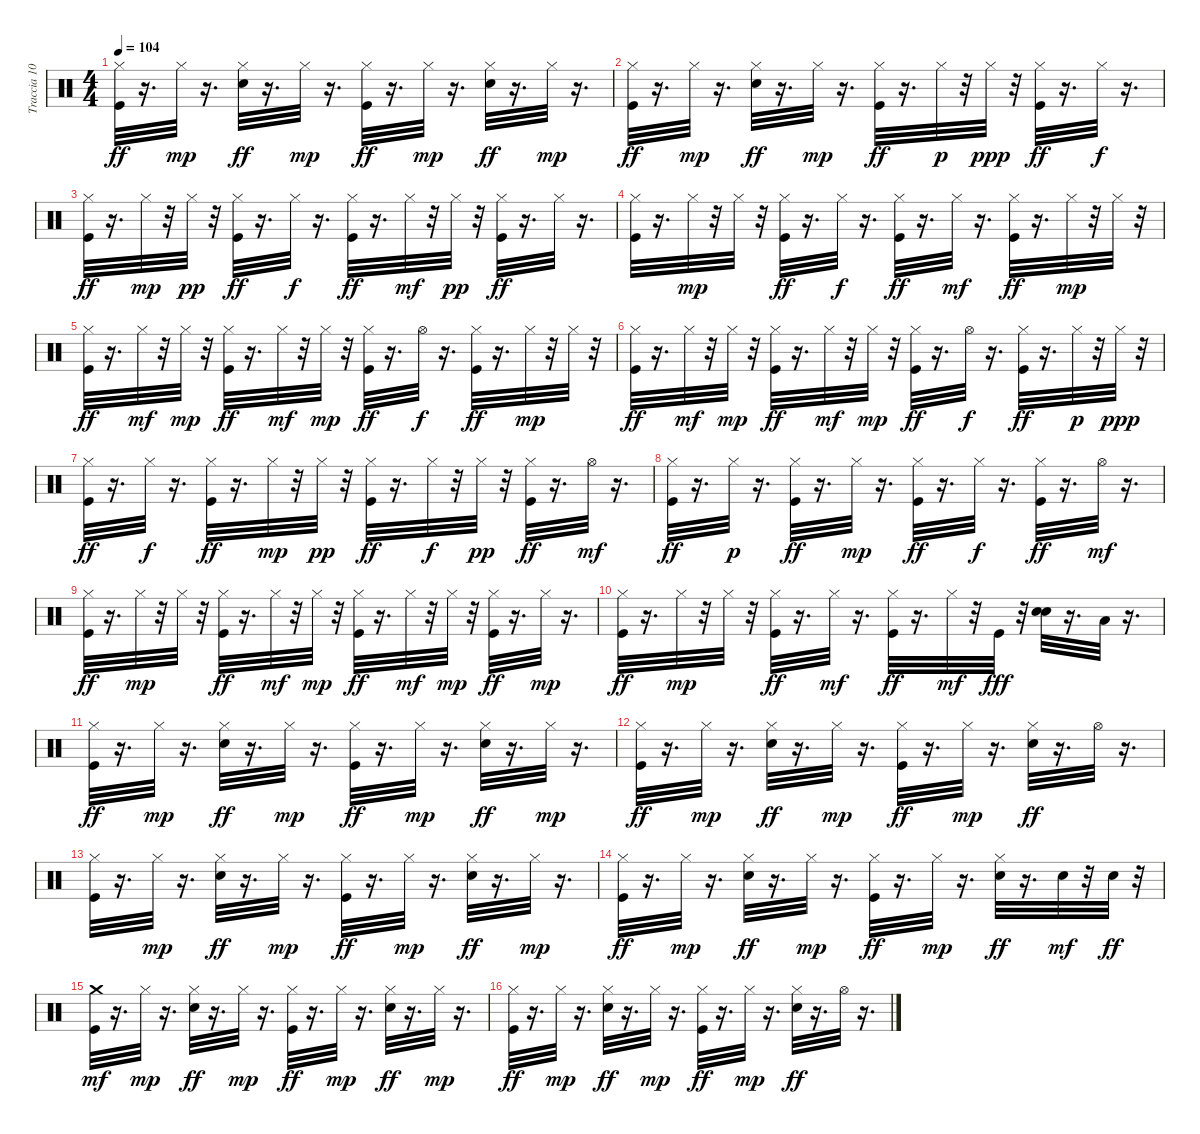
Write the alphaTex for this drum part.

\track ("Traccia 10" "Traccia 10") {instrument percussion}
\staff {score}
\articulation defaults
\ts (4 4)
\tempo 104
\clef neutral
\ks c
("Kick (hit)" "Hi-Hat (closed)").32{dy ff} r.16{d} "Hi-Hat (closed)".32{dy mp} r.16{d} ("Snare (hit) 2" "Hi-Hat (closed)").32{dy ff} r.16{d} "Hi-Hat (closed)".32{dy mp} r.16{d} ("Kick (hit)" "Hi-Hat (closed)").32{dy ff} r.16{d} "Hi-Hat (closed)".32{dy mp} r.16{d} ("Snare (hit) 2" "Hi-Hat (closed)").32{dy ff} r.16{d} "Hi-Hat (closed)".32{dy mp} r.16{d} |
("Kick (hit)" "Hi-Hat (closed)").32{dy ff} r.16{d} "Hi-Hat (closed)".32{dy mp} r.16{d} ("Snare (hit) 2" "Hi-Hat (closed)").32{dy ff} r.16{d} "Hi-Hat (closed)".32{dy mp} r.16{d} ("Kick (hit)" "Hi-Hat (closed)").32{dy ff} r.16{d} "Hi-Hat (closed)".32{dy p} r.32 "Hi-Hat (closed)".32{dy ppp} r.32 ("Kick (hit)" "Hi-Hat (closed)").32{dy ff} r.16{d} "Hi-Hat (closed)".32{dy f} r.16{d} |
("Kick (hit)" "Hi-Hat (closed)").32{dy ff} r.16{d} "Hi-Hat (closed)".32{dy mp} r.32 "Hi-Hat (closed)".32{dy pp} r.32 ("Kick (hit)" "Hi-Hat (closed)").32{dy ff} r.16{d} "Hi-Hat (closed)".32{dy f} r.16{d} ("Kick (hit)" "Hi-Hat (closed)").32{dy ff} r.16{d} "Hi-Hat (closed)".32{dy mf} r.32 "Hi-Hat (closed)".32{dy pp} r.32 ("Kick (hit)" "Hi-Hat (closed)").32{dy ff} r.16{d} "Hi-Hat (closed)".32 r.16{d} |
("Kick (hit)" "Hi-Hat (closed)").32 r.16{d} "Hi-Hat (closed)".32{dy mp} r.32 "Hi-Hat (closed)".32 r.32 ("Kick (hit)" "Hi-Hat (closed)").32{dy ff} r.16{d} "Hi-Hat (closed)".32{dy f} r.16{d} ("Kick (hit)" "Hi-Hat (closed)").32{dy ff} r.16{d} "Hi-Hat (closed)".32{dy mf} r.16{d} ("Kick (hit)" "Hi-Hat (closed)").32{dy ff} r.16{d} "Hi-Hat (closed)".32{dy mp} r.32 "Hi-Hat (closed)".32 r.32 |
("Kick (hit)" "Hi-Hat (closed)").32{dy ff} r.16{d} "Hi-Hat (closed)".32{dy mf} r.32 "Hi-Hat (closed)".32{dy mp} r.32 ("Kick (hit)" "Hi-Hat (closed)").32{dy ff} r.16{d} "Hi-Hat (closed)".32{dy mf} r.32 "Hi-Hat (closed)".32{dy mp} r.32 ("Kick (hit)" "Hi-Hat (closed)").32{dy ff} r.16{d} "Hi-Hat (open)".32{dy f} r.16{d} ("Kick (hit)" "Hi-Hat (closed)").32{dy ff} r.16{d} "Hi-Hat (closed)".32{dy mp} r.32 "Hi-Hat (closed)".32 r.32 |
("Kick (hit)" "Hi-Hat (closed)").32{dy ff} r.16{d} "Hi-Hat (closed)".32{dy mf} r.32 "Hi-Hat (closed)".32{dy mp} r.32 ("Kick (hit)" "Hi-Hat (closed)").32{dy ff} r.16{d} "Hi-Hat (closed)".32{dy mf} r.32 "Hi-Hat (closed)".32{dy mp} r.32 ("Kick (hit)" "Hi-Hat (closed)").32{dy ff} r.16{d} "Hi-Hat (open)".32{dy f} r.16{d} ("Kick (hit)" "Hi-Hat (closed)").32{dy ff} r.16{d} "Hi-Hat (closed)".32{dy p} r.32 "Hi-Hat (closed)".32{dy ppp} r.32 |
("Kick (hit)" "Hi-Hat (closed)").32{dy ff} r.16{d} "Hi-Hat (closed)".32{dy f} r.16{d} ("Kick (hit)" "Hi-Hat (closed)").32{dy ff} r.16{d} "Hi-Hat (closed)".32{dy mp} r.32 "Hi-Hat (closed)".32{dy pp} r.32 ("Kick (hit)" "Hi-Hat (closed)").32{dy ff} r.16{d} "Hi-Hat (closed)".32{dy f} r.32 "Hi-Hat (closed)".32{dy pp} r.32 ("Kick (hit)" "Hi-Hat (closed)").32{dy ff} r.16{d} "Hi-Hat (open)".32{dy mf} r.16{d} |
("Kick (hit)" "Hi-Hat (closed)").32{dy ff} r.16{d} "Hi-Hat (closed)".32{dy p} r.16{d} ("Kick (hit)" "Hi-Hat (closed)").32{dy ff} r.16{d} "Hi-Hat (closed)".32{dy mp} r.16{d} ("Kick (hit)" "Hi-Hat (closed)").32{dy ff} r.16{d} "Hi-Hat (closed)".32{dy f} r.16{d} ("Kick (hit)" "Hi-Hat (closed)").32{dy ff} r.16{d} "Hi-Hat (open)".32{dy mf} r.16{d} |
("Kick (hit)" "Hi-Hat (closed)").32{dy ff} r.16{d} "Hi-Hat (closed)".32{dy mp} r.32 "Hi-Hat (closed)".32 r.32 ("Kick (hit)" "Hi-Hat (closed)").32{dy ff} r.16{d} "Hi-Hat (closed)".32{dy mf} r.32 "Hi-Hat (closed)".32{dy mp} r.32 ("Kick (hit)" "Hi-Hat (closed)").32{dy ff} r.16{d} "Hi-Hat (closed)".32{dy mf} r.32 "Hi-Hat (closed)".32{dy mp} r.32 ("Kick (hit)" "Hi-Hat (closed)").32{dy ff} r.16{d} "Hi-Hat (closed)".32{dy mp} r.16{d} |
("Kick (hit)" "Hi-Hat (closed)").32{dy ff} r.16{d} "Hi-Hat (closed)".32{dy mp} r.32 "Hi-Hat (closed)".32 r.32 ("Kick (hit)" "Hi-Hat (closed)").32{dy ff} r.16{d} "Hi-Hat (closed)".32{dy mf} r.16{d} ("Kick (hit)" "Hi-Hat (closed)").32{dy ff} r.16{d} "Hi-Hat (closed)".32{dy mf} r.32 "Kick (hit)".32{dy fff} r.32 ("Snare (hit) 2" "Snare (hit) 2").32 r.16{d} "Low Tom (hit)".32 r.16{d} |
("Kick (hit)" "Hi-Hat (closed)").32{dy ff} r.16{d} "Hi-Hat (closed)".32{dy mp} r.16{d} ("Snare (hit) 2" "Hi-Hat (closed)").32{dy ff} r.16{d} "Hi-Hat (closed)".32{dy mp} r.16{d} ("Kick (hit)" "Hi-Hat (closed)").32{dy ff} r.16{d} "Hi-Hat (closed)".32{dy mp} r.16{d} ("Snare (hit) 2" "Hi-Hat (closed)").32{dy ff} r.16{d} "Hi-Hat (closed)".32{dy mp} r.16{d} |
("Kick (hit)" "Hi-Hat (closed)").32{dy ff} r.16{d} "Hi-Hat (closed)".32{dy mp} r.16{d} ("Snare (hit) 2" "Hi-Hat (closed)").32{dy ff} r.16{d} "Hi-Hat (closed)".32{dy mp} r.16{d} ("Kick (hit)" "Hi-Hat (closed)").32{dy ff} r.16{d} "Hi-Hat (closed)".32{dy mp} r.16{d} ("Snare (hit) 2" "Hi-Hat (closed)").32{dy ff} r.16{d} "Hi-Hat (open)".32 r.16{d} |
("Kick (hit)" "Hi-Hat (closed)").32 r.16{d} "Hi-Hat (closed)".32{dy mp} r.16{d} ("Snare (hit) 2" "Hi-Hat (closed)").32{dy ff} r.16{d} "Hi-Hat (closed)".32{dy mp} r.16{d} ("Kick (hit)" "Hi-Hat (closed)").32{dy ff} r.16{d} "Hi-Hat (closed)".32{dy mp} r.16{d} ("Snare (hit) 2" "Hi-Hat (closed)").32{dy ff} r.16{d} "Hi-Hat (closed)".32{dy mp} r.16{d} |
("Kick (hit)" "Hi-Hat (closed)").32{dy ff} r.16{d} "Hi-Hat (closed)".32{dy mp} r.16{d} ("Snare (hit) 2" "Hi-Hat (closed)").32{dy ff} r.16{d} "Hi-Hat (closed)".32{dy mp} r.16{d} ("Kick (hit)" "Hi-Hat (closed)").32{dy ff} r.16{d} "Hi-Hat (closed)".32{dy mp} r.16{d} ("Snare (hit) 2" "Hi-Hat (closed)").32{dy ff} r.16{d} "Snare (hit) 2".32{dy mf} r.32 "Snare (hit) 2".32{dy ff} r.32 |
("Kick (hit)" "Crash medium (hit)").32{dy mf} r.16{d} "Hi-Hat (closed)".32{dy mp} r.16{d} ("Snare (hit) 2" "Hi-Hat (closed)").32{dy ff} r.16{d} "Hi-Hat (closed)".32{dy mp} r.16{d} ("Kick (hit)" "Hi-Hat (closed)").32{dy ff} r.16{d} "Hi-Hat (closed)".32{dy mp} r.16{d} ("Snare (hit) 2" "Hi-Hat (closed)").32{dy ff} r.16{d} "Hi-Hat (closed)".32{dy mp} r.16{d} |
("Kick (hit)" "Hi-Hat (closed)").32{dy ff} r.16{d} "Hi-Hat (closed)".32{dy mp} r.16{d} ("Snare (hit) 2" "Hi-Hat (closed)").32{dy ff} r.16{d} "Hi-Hat (closed)".32{dy mp} r.16{d} ("Kick (hit)" "Hi-Hat (closed)").32{dy ff} r.16{d} "Hi-Hat (closed)".32{dy mp} r.16{d} ("Snare (hit) 2" "Hi-Hat (closed)").32{dy ff} r.16{d} "Hi-Hat (open)".32 r.16{d}
